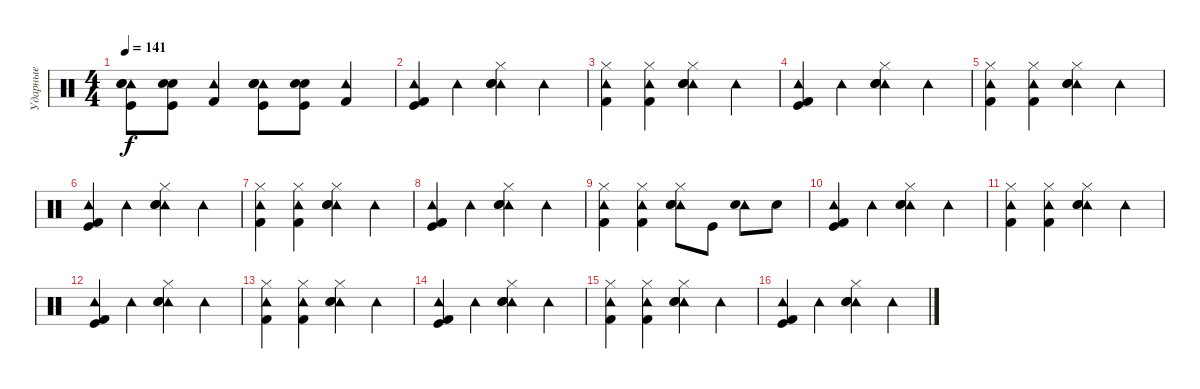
\track ("Ударные" "Ударные") {instrument percussion}
\staff {score}
\articulation defaults
\ts (4 4)
\tempo 141
\clef neutral
\ks c
("Tambourine (hit)" "Snare (hit) 2" "Kick (hit)" "Electric Snare (hit)").8{dy f} ("Snare (hit) 2" "Kick (hit)" "Electric Snare (hit)").8 ("Tambourine (hit)" "Kick (hit) 2").4 ("Tambourine (hit)" "Snare (hit) 2" "Kick (hit)" "Electric Snare (hit)").8 ("Snare (hit) 2" "Kick (hit)" "Electric Snare (hit)").8 ("Tambourine (hit)" "Kick (hit) 2").4 |
("Tambourine (hit)" "Kick (hit)" "Kick (hit) 2").4 "Tambourine (hit)".4 ("Tambourine (hit)" "Electric Snare (hit)" "Snare (hit) 2" "Hi-Hat (closed)").4 "Tambourine (hit)".4 |
("Kick (hit) 2" "Hi-Hat (closed)" "Tambourine (hit)").4 ("Kick (hit) 2" "Hi-Hat (closed)" "Tambourine (hit)").4 ("Tambourine (hit)" "Electric Snare (hit)" "Snare (hit) 2" "Hi-Hat (closed)").4 "Tambourine (hit)".4 |
("Tambourine (hit)" "Kick (hit)" "Kick (hit) 2").4 "Tambourine (hit)".4 ("Tambourine (hit)" "Electric Snare (hit)" "Snare (hit) 2" "Hi-Hat (closed)").4 "Tambourine (hit)".4 |
("Kick (hit) 2" "Hi-Hat (closed)" "Tambourine (hit)").4 ("Kick (hit) 2" "Hi-Hat (closed)" "Tambourine (hit)").4 ("Tambourine (hit)" "Electric Snare (hit)" "Snare (hit) 2" "Hi-Hat (closed)").4 "Tambourine (hit)".4 |
("Tambourine (hit)" "Kick (hit)" "Kick (hit) 2").4 "Tambourine (hit)".4 ("Tambourine (hit)" "Electric Snare (hit)" "Snare (hit) 2" "Hi-Hat (closed)").4 "Tambourine (hit)".4 |
("Kick (hit) 2" "Hi-Hat (closed)" "Tambourine (hit)").4 ("Kick (hit) 2" "Hi-Hat (closed)" "Tambourine (hit)").4 ("Tambourine (hit)" "Electric Snare (hit)" "Snare (hit) 2" "Hi-Hat (closed)").4 "Tambourine (hit)".4 |
("Tambourine (hit)" "Kick (hit) 2" "Kick (hit)").4 "Tambourine (hit)".4 ("Tambourine (hit)" "Electric Snare (hit)" "Snare (hit) 2" "Hi-Hat (closed)").4 "Tambourine (hit)".4 |
("Kick (hit) 2" "Hi-Hat (closed)" "Tambourine (hit)").4 ("Kick (hit) 2" "Hi-Hat (closed)" "Tambourine (hit)").4 ("Tambourine (hit)" "Electric Snare (hit)" "Snare (hit) 2" "Hi-Hat (closed)").8 "Kick (hit)".8 ("Tambourine (hit)" "Electric Snare (hit)").8 "Electric Snare (hit)".8 |
("Tambourine (hit)" "Kick (hit)" "Kick (hit) 2").4 "Tambourine (hit)".4 ("Tambourine (hit)" "Electric Snare (hit)" "Snare (hit) 2" "Hi-Hat (closed)").4 "Tambourine (hit)".4 |
("Kick (hit) 2" "Hi-Hat (closed)" "Tambourine (hit)").4 ("Kick (hit) 2" "Hi-Hat (closed)" "Tambourine (hit)").4 ("Tambourine (hit)" "Electric Snare (hit)" "Snare (hit) 2" "Hi-Hat (closed)").4 "Tambourine (hit)".4 |
("Tambourine (hit)" "Kick (hit)" "Kick (hit) 2").4 "Tambourine (hit)".4 ("Tambourine (hit)" "Electric Snare (hit)" "Snare (hit) 2" "Hi-Hat (closed)").4 "Tambourine (hit)".4 |
("Kick (hit) 2" "Hi-Hat (closed)" "Tambourine (hit)").4 ("Kick (hit) 2" "Hi-Hat (closed)" "Tambourine (hit)").4 ("Tambourine (hit)" "Electric Snare (hit)" "Snare (hit) 2" "Hi-Hat (closed)").4 "Tambourine (hit)".4 |
("Tambourine (hit)" "Kick (hit)" "Kick (hit) 2").4 "Tambourine (hit)".4 ("Tambourine (hit)" "Electric Snare (hit)" "Snare (hit) 2" "Hi-Hat (closed)").4 "Tambourine (hit)".4 |
("Kick (hit) 2" "Hi-Hat (closed)" "Tambourine (hit)").4 ("Kick (hit) 2" "Hi-Hat (closed)" "Tambourine (hit)").4 ("Tambourine (hit)" "Electric Snare (hit)" "Snare (hit) 2" "Hi-Hat (closed)").4 "Tambourine (hit)".4 |
("Tambourine (hit)" "Kick (hit) 2" "Kick (hit)").4 "Tambourine (hit)".4 ("Tambourine (hit)" "Electric Snare (hit)" "Snare (hit) 2" "Hi-Hat (closed)").4 "Tambourine (hit)".4
